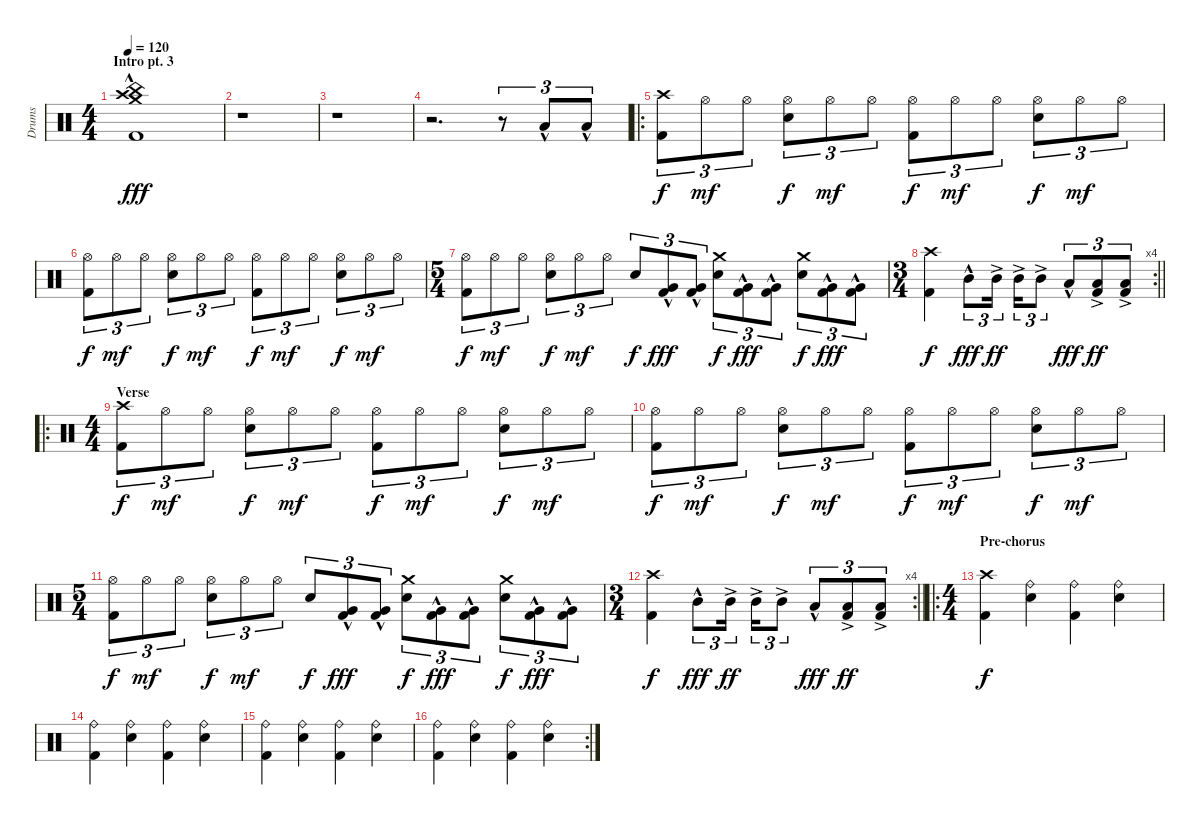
\track ("Drums" "Drums") {instrument percussion}
\staff {score}
\articulation defaults
\ts (4 4)
\section ("" "Intro pt. 3")
\tempo 120
\clef neutral
\ks c
("Crash high (hit)"{hac} "Crash medium (hit)"{hac} "China (hit)"{hac} "Kick (hit) 2"{hac}).1{dy fff} |
r.1 |
r.1 |
r.2{d} r.8{tu (3 2)} "Low Tom (hit)"{hac}.8{tu (3 2)} "Low Tom (hit)"{hac}.8{tu (3 2)} |
\ro
("Crash high (hit)" "Kick (hit) 2").8{tu (3 2) dy f} "Hi-Hat (open)".8{tu (3 2) dy mf} "Hi-Hat (open)".8{tu (3 2)} ("Hi-Hat (open)" "Snare (hit) 2").8{tu (3 2) dy f} "Hi-Hat (open)".8{tu (3 2) dy mf} "Hi-Hat (open)".8{tu (3 2)} ("Hi-Hat (open)" "Kick (hit) 2").8{tu (3 2) dy f} "Hi-Hat (open)".8{tu (3 2) dy mf} "Hi-Hat (open)".8{tu (3 2)} ("Hi-Hat (open)" "Snare (hit) 2").8{tu (3 2) dy f} "Hi-Hat (open)".8{tu (3 2) dy mf} "Hi-Hat (open)".8{tu (3 2)} |
("Hi-Hat (open)" "Kick (hit) 2").8{tu (3 2) dy f} "Hi-Hat (open)".8{tu (3 2) dy mf} "Hi-Hat (open)".8{tu (3 2)} ("Hi-Hat (open)" "Snare (hit) 2").8{tu (3 2) dy f} "Hi-Hat (open)".8{tu (3 2) dy mf} "Hi-Hat (open)".8{tu (3 2)} ("Hi-Hat (open)" "Kick (hit) 2").8{tu (3 2) dy f} "Hi-Hat (open)".8{tu (3 2) dy mf} "Hi-Hat (open)".8{tu (3 2)} ("Hi-Hat (open)" "Snare (hit) 2").8{tu (3 2) dy f} "Hi-Hat (open)".8{tu (3 2) dy mf} "Hi-Hat (open)".8{tu (3 2)} |
\ts (5 4)
("Hi-Hat (open)" "Kick (hit) 2").8{tu (3 2) dy f} "Hi-Hat (open)".8{tu (3 2) dy mf} "Hi-Hat (open)".8{tu (3 2)} ("Hi-Hat (open)" "Snare (hit) 2").8{tu (3 2) dy f} "Hi-Hat (open)".8{tu (3 2) dy mf} "Hi-Hat (open)".8{tu (3 2)} "Snare (hit) 2".8{tu (3 2) dy f} ("Very Low Tom (hit)"{hac} "Kick (hit) 2").8{tu (3 2) dy fff} ("Very Low Tom (hit)"{hac} "Kick (hit) 2").8{tu (3 2)} ("Crash medium (hit)" "Snare (hit) 2").8{tu (3 2) dy f} ("Very Low Tom (hit)"{hac} "Kick (hit) 2").8{tu (3 2) dy fff} ("Very Low Tom (hit)"{hac} "Kick (hit) 2").8{tu (3 2)} ("Crash medium (hit)" "Snare (hit) 2").8{tu (3 2) dy f} ("Very Low Tom (hit)"{hac} "Kick (hit) 2").8{tu (3 2) dy fff} ("Very Low Tom (hit)"{hac} "Kick (hit) 2").8{tu (3 2)} |
\rc 4
\ts (3 4)
\barLineRight lightlight
("Crash high (hit)" "Kick (hit) 2").4{dy f} "Mid Tom (hit)"{hac}.8{tu (3 2) dy fff} "Mid Tom (hit)"{ac}.16{tu (3 2) dy ff beam splitsecondary} "Mid Tom (hit)"{ac}.16{tu (3 2)} "Mid Tom (hit)"{ac}.8{tu (3 2)} "Low Tom (hit)"{hac}.8{tu (3 2) dy fff} ("Low Tom (hit)"{ac} "Kick (hit) 2").8{tu (3 2) dy ff} ("Low Tom (hit)"{ac} "Kick (hit) 2").8{tu (3 2)} |
\ro
\ts (4 4)
\section ("" "Verse")
("Crash high (hit)" "Kick (hit) 2").8{tu (3 2) dy f} "Hi-Hat (open)".8{tu (3 2) dy mf} "Hi-Hat (open)".8{tu (3 2)} ("Hi-Hat (open)" "Snare (hit) 2").8{tu (3 2) dy f} "Hi-Hat (open)".8{tu (3 2) dy mf} "Hi-Hat (open)".8{tu (3 2)} ("Hi-Hat (open)" "Kick (hit) 2").8{tu (3 2) dy f} "Hi-Hat (open)".8{tu (3 2) dy mf} "Hi-Hat (open)".8{tu (3 2)} ("Hi-Hat (open)" "Snare (hit) 2").8{tu (3 2) dy f} "Hi-Hat (open)".8{tu (3 2) dy mf} "Hi-Hat (open)".8{tu (3 2)} |
("Hi-Hat (open)" "Kick (hit) 2").8{tu (3 2) dy f} "Hi-Hat (open)".8{tu (3 2) dy mf} "Hi-Hat (open)".8{tu (3 2)} ("Hi-Hat (open)" "Snare (hit) 2").8{tu (3 2) dy f} "Hi-Hat (open)".8{tu (3 2) dy mf} "Hi-Hat (open)".8{tu (3 2)} ("Hi-Hat (open)" "Kick (hit) 2").8{tu (3 2) dy f} "Hi-Hat (open)".8{tu (3 2) dy mf} "Hi-Hat (open)".8{tu (3 2)} ("Hi-Hat (open)" "Snare (hit) 2").8{tu (3 2) dy f} "Hi-Hat (open)".8{tu (3 2) dy mf} "Hi-Hat (open)".8{tu (3 2)} |
\ts (5 4)
("Hi-Hat (open)" "Kick (hit) 2").8{tu (3 2) dy f} "Hi-Hat (open)".8{tu (3 2) dy mf} "Hi-Hat (open)".8{tu (3 2)} ("Hi-Hat (open)" "Snare (hit) 2").8{tu (3 2) dy f} "Hi-Hat (open)".8{tu (3 2) dy mf} "Hi-Hat (open)".8{tu (3 2)} "Snare (hit) 2".8{tu (3 2) dy f} ("Very Low Tom (hit)"{hac} "Kick (hit) 2").8{tu (3 2) dy fff} ("Very Low Tom (hit)"{hac} "Kick (hit) 2").8{tu (3 2)} ("Crash medium (hit)" "Snare (hit) 2").8{tu (3 2) dy f} ("Very Low Tom (hit)"{hac} "Kick (hit) 2").8{tu (3 2) dy fff} ("Very Low Tom (hit)"{hac} "Kick (hit) 2").8{tu (3 2)} ("Crash medium (hit)" "Snare (hit) 2").8{tu (3 2) dy f} ("Very Low Tom (hit)"{hac} "Kick (hit) 2").8{tu (3 2) dy fff} ("Very Low Tom (hit)"{hac} "Kick (hit) 2").8{tu (3 2)} |
\rc 4
\ts (3 4)
\barLineRight lightlight
("Crash high (hit)" "Kick (hit) 2").4{dy f} "Mid Tom (hit)"{hac}.8{tu (3 2) dy fff} "Mid Tom (hit)"{ac}.16{tu (3 2) dy ff beam splitsecondary} "Mid Tom (hit)"{ac}.16{tu (3 2)} "Mid Tom (hit)"{ac}.8{tu (3 2)} "Low Tom (hit)"{hac}.8{tu (3 2) dy fff} ("Low Tom (hit)"{ac} "Kick (hit) 2").8{tu (3 2) dy ff} ("Low Tom (hit)"{ac} "Kick (hit) 2").8{tu (3 2)} |
\ro
\ts (4 4)
\section ("" "Pre-chorus")
("Crash high (hit)" "Kick (hit) 2").4{dy f} ("Ride (bell)" "Snare (hit) 2").4 ("Ride (bell)" "Kick (hit) 2").4 ("Ride (bell)" "Snare (hit) 2").4 |
("Ride (bell)" "Kick (hit) 2").4 ("Ride (bell)" "Snare (hit) 2").4 ("Ride (bell)" "Kick (hit) 2").4 ("Ride (bell)" "Snare (hit) 2").4 |
("Ride (bell)" "Kick (hit) 2").4 ("Ride (bell)" "Snare (hit) 2").4 ("Ride (bell)" "Kick (hit) 2").4 ("Ride (bell)" "Snare (hit) 2").4 |
\rc 2
("Ride (bell)" "Kick (hit) 2").4 ("Ride (bell)" "Snare (hit) 2").4 ("Ride (bell)" "Kick (hit) 2").4 ("Ride (bell)" "Snare (hit) 2").4
